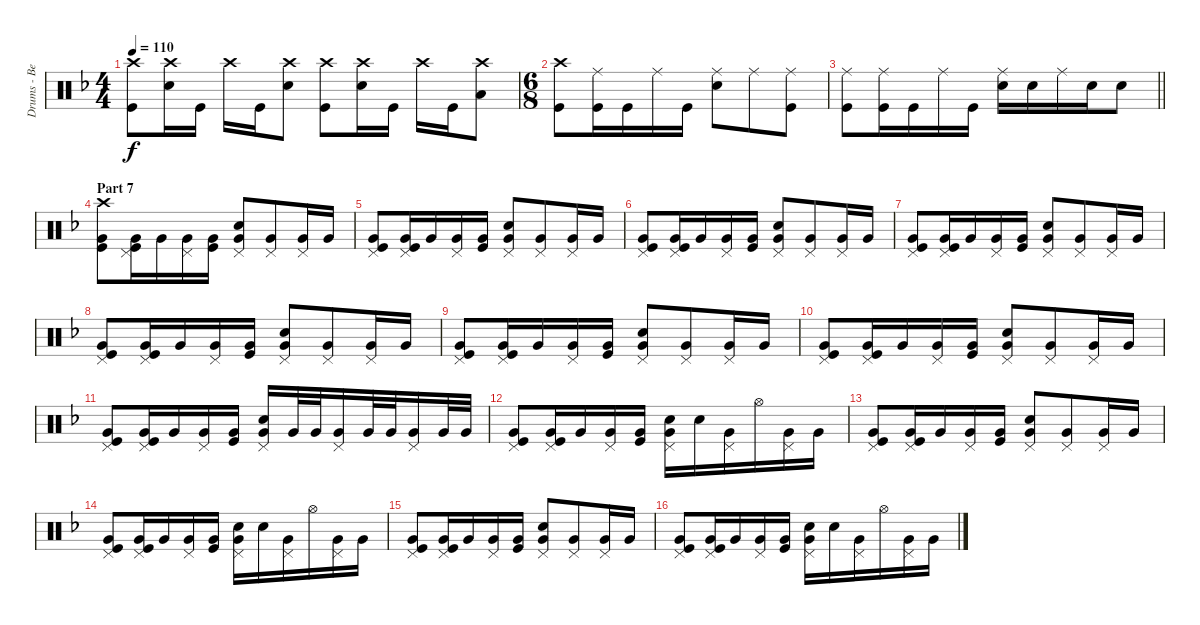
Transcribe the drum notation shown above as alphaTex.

\track ("Drums - Ben Johnston" "Drums - Be") {instrument percussion}
\staff {score}
\articulation defaults
\ts (4 4)
\tempo 110
\clef neutral
\ks dminor
("Crash high (hit)" "Kick (hit)").8{dy f} ("Crash high (hit)" "Snare (hit) 2").16 "Kick (hit)".16 "Crash high (hit)".16 "Kick (hit)".16 ("Crash high (hit)" "Snare (hit) 2").8 ("Crash high (hit)" "Kick (hit)").8 ("Crash high (hit)" "Snare (hit) 2").16 "Kick (hit)".16 "Crash high (hit)".16 "Kick (hit)".16 ("Crash high (hit)" "Low Floor Tom (hit)").8 |
\ts (6 8)
("Crash high (hit)" "Kick (hit)").8 ("Ride (middle)" "Kick (hit)").16 "Kick (hit)".16 "Ride (middle)".16 "Kick (hit)".16 ("Ride (middle)" "Snare (hit) 2").8 "Ride (middle)".8 ("Ride (middle)" "Kick (hit)").8 |
\barLineRight lightlight
("Ride (middle)" "Kick (hit)").8 ("Ride (middle)" "Kick (hit)").16 "Kick (hit)".16 "Ride (middle)".16 "Kick (hit)".16 ("Ride (middle)" "Snare (hit) 2").16 "Snare (hit) 2".16 "Ride (middle)".16 "Snare (hit) 2".16 "Snare (hit) 2".8 |
\section ("" "Part 7")
("Crash high (hit)" "Very Low Tom (hit)" "Kick (hit)").8 ("Very Low Tom (hit)" "Pedal Hi-Hat (hit)" "Kick (hit)").16 "Very Low Tom (hit)".16 ("Very Low Tom (hit)" "Pedal Hi-Hat (hit)").16 ("Very Low Tom (hit)" "Kick (hit)").16 ("Very Low Tom (hit)" "Pedal Hi-Hat (hit)" "Snare (hit) 2").8 ("Very Low Tom (hit)" "Pedal Hi-Hat (hit)").8 ("Very Low Tom (hit)" "Pedal Hi-Hat (hit)").16 "Very Low Tom (hit)".16 |
("Very Low Tom (hit)" "Pedal Hi-Hat (hit)" "Kick (hit)").8 ("Very Low Tom (hit)" "Pedal Hi-Hat (hit)" "Kick (hit)").16 "Very Low Tom (hit)".16 ("Very Low Tom (hit)" "Pedal Hi-Hat (hit)").16 ("Very Low Tom (hit)" "Kick (hit)").16 ("Very Low Tom (hit)" "Pedal Hi-Hat (hit)" "Snare (hit) 2").8 ("Very Low Tom (hit)" "Pedal Hi-Hat (hit)").8 ("Very Low Tom (hit)" "Pedal Hi-Hat (hit)").16 "Very Low Tom (hit)".16 |
("Very Low Tom (hit)" "Pedal Hi-Hat (hit)" "Kick (hit)").8 ("Very Low Tom (hit)" "Pedal Hi-Hat (hit)" "Kick (hit)").16 "Very Low Tom (hit)".16 ("Very Low Tom (hit)" "Pedal Hi-Hat (hit)").16 ("Very Low Tom (hit)" "Kick (hit)").16 ("Very Low Tom (hit)" "Pedal Hi-Hat (hit)" "Snare (hit) 2").8 ("Very Low Tom (hit)" "Pedal Hi-Hat (hit)").8 ("Very Low Tom (hit)" "Pedal Hi-Hat (hit)").16 "Very Low Tom (hit)".16 |
("Very Low Tom (hit)" "Pedal Hi-Hat (hit)" "Kick (hit)").8 ("Very Low Tom (hit)" "Pedal Hi-Hat (hit)" "Kick (hit)").16 "Very Low Tom (hit)".16 ("Very Low Tom (hit)" "Pedal Hi-Hat (hit)").16 ("Very Low Tom (hit)" "Kick (hit)").16 ("Very Low Tom (hit)" "Pedal Hi-Hat (hit)" "Snare (hit) 2").8 ("Very Low Tom (hit)" "Pedal Hi-Hat (hit)").8 ("Very Low Tom (hit)" "Pedal Hi-Hat (hit)").16 "Very Low Tom (hit)".16 |
("Very Low Tom (hit)" "Pedal Hi-Hat (hit)" "Kick (hit)").8 ("Very Low Tom (hit)" "Pedal Hi-Hat (hit)" "Kick (hit)").16 "Very Low Tom (hit)".16 ("Very Low Tom (hit)" "Pedal Hi-Hat (hit)").16 ("Very Low Tom (hit)" "Kick (hit)").16 ("Very Low Tom (hit)" "Pedal Hi-Hat (hit)" "Snare (hit) 2").8 ("Very Low Tom (hit)" "Pedal Hi-Hat (hit)").8 ("Very Low Tom (hit)" "Pedal Hi-Hat (hit)").16 "Very Low Tom (hit)".16 |
("Very Low Tom (hit)" "Pedal Hi-Hat (hit)" "Kick (hit)").8 ("Very Low Tom (hit)" "Pedal Hi-Hat (hit)" "Kick (hit)").16 "Very Low Tom (hit)".16 ("Very Low Tom (hit)" "Pedal Hi-Hat (hit)").16 ("Very Low Tom (hit)" "Kick (hit)").16 ("Very Low Tom (hit)" "Pedal Hi-Hat (hit)" "Snare (hit) 2").8 ("Very Low Tom (hit)" "Pedal Hi-Hat (hit)").8 ("Very Low Tom (hit)" "Pedal Hi-Hat (hit)").16 "Very Low Tom (hit)".16 |
("Very Low Tom (hit)" "Pedal Hi-Hat (hit)" "Kick (hit)").8 ("Very Low Tom (hit)" "Pedal Hi-Hat (hit)" "Kick (hit)").16 "Very Low Tom (hit)".16 ("Very Low Tom (hit)" "Pedal Hi-Hat (hit)").16 ("Very Low Tom (hit)" "Kick (hit)").16 ("Very Low Tom (hit)" "Pedal Hi-Hat (hit)" "Snare (hit) 2").8 ("Very Low Tom (hit)" "Pedal Hi-Hat (hit)").8 ("Very Low Tom (hit)" "Pedal Hi-Hat (hit)").16 "Very Low Tom (hit)".16 |
("Very Low Tom (hit)" "Pedal Hi-Hat (hit)" "Kick (hit)").8 ("Very Low Tom (hit)" "Pedal Hi-Hat (hit)" "Kick (hit)").16 "Very Low Tom (hit)".16 ("Very Low Tom (hit)" "Pedal Hi-Hat (hit)").16 ("Very Low Tom (hit)" "Kick (hit)").16 ("Very Low Tom (hit)" "Pedal Hi-Hat (hit)" "Snare (hit) 2").16 "Very Low Tom (hit)".32 "Very Low Tom (hit)".32 ("Very Low Tom (hit)" "Pedal Hi-Hat (hit)").16 "Very Low Tom (hit)".32 "Very Low Tom (hit)".32 ("Very Low Tom (hit)" "Pedal Hi-Hat (hit)").16 "Very Low Tom (hit)".32 "Very Low Tom (hit)".32 |
("Very Low Tom (hit)" "Pedal Hi-Hat (hit)" "Kick (hit)").8 ("Very Low Tom (hit)" "Pedal Hi-Hat (hit)" "Kick (hit)").16 "Very Low Tom (hit)".16 ("Very Low Tom (hit)" "Pedal Hi-Hat (hit)").16 ("Very Low Tom (hit)" "Kick (hit)").16 ("Very Low Tom (hit)" "Pedal Hi-Hat (hit)" "Snare (hit) 2").16 "Snare (hit) 2".16 ("Very Low Tom (hit)" "Pedal Hi-Hat (hit)").16 "Hi-Hat (open)".16 ("Very Low Tom (hit)" "Pedal Hi-Hat (hit)").16 "Very Low Tom (hit)".16 |
("Very Low Tom (hit)" "Pedal Hi-Hat (hit)" "Kick (hit)").8 ("Very Low Tom (hit)" "Pedal Hi-Hat (hit)" "Kick (hit)").16 "Very Low Tom (hit)".16 ("Very Low Tom (hit)" "Pedal Hi-Hat (hit)").16 ("Very Low Tom (hit)" "Kick (hit)").16 ("Very Low Tom (hit)" "Pedal Hi-Hat (hit)" "Snare (hit) 2").8 ("Very Low Tom (hit)" "Pedal Hi-Hat (hit)").8 ("Very Low Tom (hit)" "Pedal Hi-Hat (hit)").16 "Very Low Tom (hit)".16 |
("Very Low Tom (hit)" "Pedal Hi-Hat (hit)" "Kick (hit)").8 ("Very Low Tom (hit)" "Pedal Hi-Hat (hit)" "Kick (hit)").16 "Very Low Tom (hit)".16 ("Very Low Tom (hit)" "Pedal Hi-Hat (hit)").16 ("Very Low Tom (hit)" "Kick (hit)").16 ("Very Low Tom (hit)" "Pedal Hi-Hat (hit)" "Snare (hit) 2").16 "Snare (hit) 2".16 ("Very Low Tom (hit)" "Pedal Hi-Hat (hit)").16 "Hi-Hat (open)".16 ("Very Low Tom (hit)" "Pedal Hi-Hat (hit)").16 "Very Low Tom (hit)".16 |
("Very Low Tom (hit)" "Pedal Hi-Hat (hit)" "Kick (hit)").8 ("Very Low Tom (hit)" "Pedal Hi-Hat (hit)" "Kick (hit)").16 "Very Low Tom (hit)".16 ("Very Low Tom (hit)" "Pedal Hi-Hat (hit)").16 ("Very Low Tom (hit)" "Kick (hit)").16 ("Very Low Tom (hit)" "Pedal Hi-Hat (hit)" "Snare (hit) 2").8 ("Very Low Tom (hit)" "Pedal Hi-Hat (hit)").8 ("Very Low Tom (hit)" "Pedal Hi-Hat (hit)").16 "Very Low Tom (hit)".16 |
("Very Low Tom (hit)" "Pedal Hi-Hat (hit)" "Kick (hit)").8 ("Very Low Tom (hit)" "Pedal Hi-Hat (hit)" "Kick (hit)").16 "Very Low Tom (hit)".16 ("Very Low Tom (hit)" "Pedal Hi-Hat (hit)").16 ("Very Low Tom (hit)" "Kick (hit)").16 ("Very Low Tom (hit)" "Pedal Hi-Hat (hit)" "Snare (hit) 2").16 "Snare (hit) 2".16 ("Very Low Tom (hit)" "Pedal Hi-Hat (hit)").16 "Hi-Hat (open)".16 ("Very Low Tom (hit)" "Pedal Hi-Hat (hit)").16 "Very Low Tom (hit)".16
